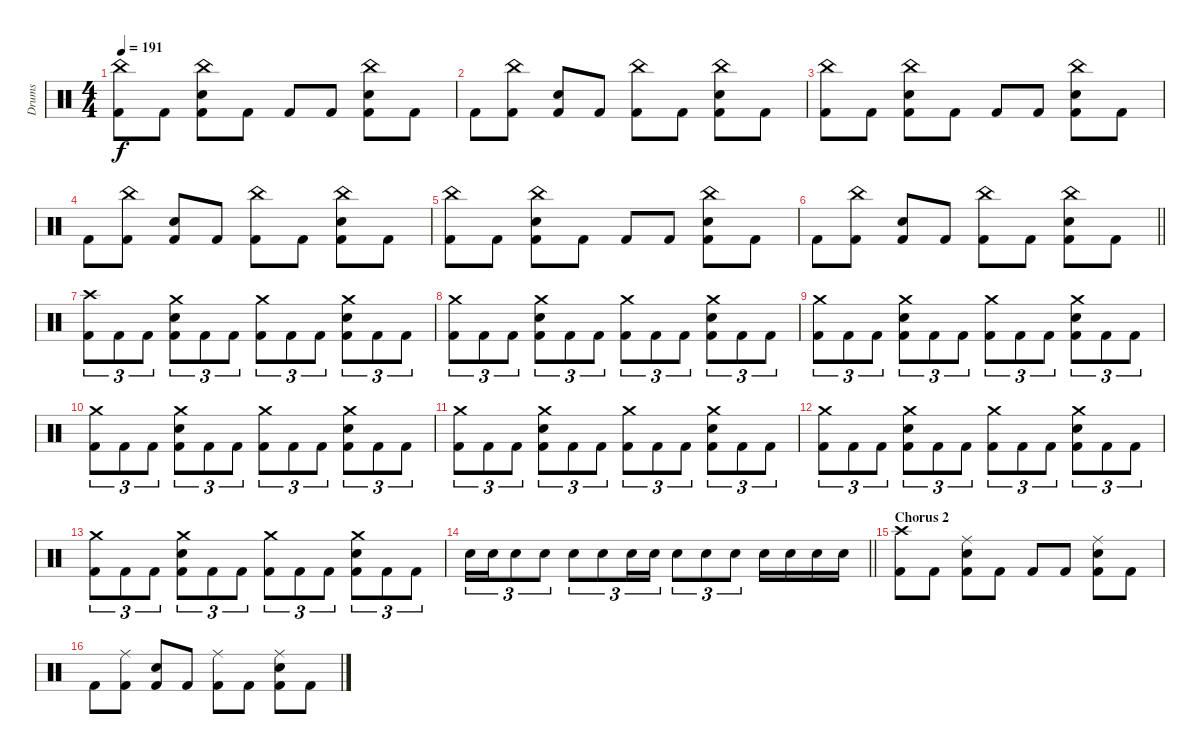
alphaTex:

\track ("Drums" "Drums") {instrument percussion}
\staff {score}
\articulation defaults
\ts (4 4)
\tempo 191
\clef neutral
\ks c
("China (hit)" "Kick (hit) 2").8{dy f} "Kick (hit) 2".8 ("China (hit)" "Snare (hit) 2" "Kick (hit) 2").8 "Kick (hit) 2".8 "Kick (hit) 2".8 "Kick (hit) 2".8 ("China (hit)" "Snare (hit) 2" "Kick (hit) 2").8 "Kick (hit) 2".8 |
"Kick (hit) 2".8 ("China (hit)" "Kick (hit) 2").8 ("Snare (hit) 2" "Kick (hit) 2").8 "Kick (hit) 2".8 ("China (hit)" "Kick (hit) 2").8 "Kick (hit) 2".8 ("China (hit)" "Snare (hit) 2" "Kick (hit) 2").8 "Kick (hit) 2".8 |
("China (hit)" "Kick (hit) 2").8 "Kick (hit) 2".8 ("China (hit)" "Snare (hit) 2" "Kick (hit) 2").8 "Kick (hit) 2".8 "Kick (hit) 2".8 "Kick (hit) 2".8 ("China (hit)" "Snare (hit) 2" "Kick (hit) 2").8 "Kick (hit) 2".8 |
"Kick (hit) 2".8 ("China (hit)" "Kick (hit) 2").8 ("Snare (hit) 2" "Kick (hit) 2").8 "Kick (hit) 2".8 ("China (hit)" "Kick (hit) 2").8 "Kick (hit) 2".8 ("China (hit)" "Snare (hit) 2" "Kick (hit) 2").8 "Kick (hit) 2".8 |
("China (hit)" "Kick (hit) 2").8 "Kick (hit) 2".8 ("China (hit)" "Snare (hit) 2" "Kick (hit) 2").8 "Kick (hit) 2".8 "Kick (hit) 2".8 "Kick (hit) 2".8 ("China (hit)" "Snare (hit) 2" "Kick (hit) 2").8 "Kick (hit) 2".8 |
\barLineRight lightlight "Kick (hit) 2".8
("China (hit)" "Kick (hit) 2").8 ("Snare (hit) 2" "Kick (hit) 2").8 "Kick (hit) 2".8 ("China (hit)" "Kick (hit) 2").8 "Kick (hit) 2".8 ("China (hit)" "Snare (hit) 2" "Kick (hit) 2").8 "Kick (hit) 2".8 |
\section ("" "")
("Crash high (hit)" "Kick (hit) 2").8{tu (3 2)} "Kick (hit) 2".8{tu (3 2)} "Kick (hit) 2".8{tu (3 2)} ("Crash medium (hit)" "Snare (hit) 2" "Kick (hit) 2").8{tu (3 2)} "Kick (hit) 2".8{tu (3 2)} "Kick (hit) 2".8{tu (3 2)} ("Crash medium (hit)" "Kick (hit) 2").8{tu (3 2)} "Kick (hit) 2".8{tu (3 2)} "Kick (hit) 2".8{tu (3 2)} ("Crash medium (hit)" "Snare (hit) 2" "Kick (hit) 2").8{tu (3 2)} "Kick (hit) 2".8{tu (3 2)} "Kick (hit) 2".8{tu (3 2)} |
("Crash medium (hit)" "Kick (hit) 2").8{tu (3 2)} "Kick (hit) 2".8{tu (3 2)} "Kick (hit) 2".8{tu (3 2)} ("Crash medium (hit)" "Snare (hit) 2" "Kick (hit) 2").8{tu (3 2)} "Kick (hit) 2".8{tu (3 2)} "Kick (hit) 2".8{tu (3 2)} ("Crash medium (hit)" "Kick (hit) 2").8{tu (3 2)} "Kick (hit) 2".8{tu (3 2)} "Kick (hit) 2".8{tu (3 2)} ("Crash medium (hit)" "Snare (hit) 2" "Kick (hit) 2").8{tu (3 2)} "Kick (hit) 2".8{tu (3 2)} "Kick (hit) 2".8{tu (3 2)} |
("Crash medium (hit)" "Kick (hit) 2").8{tu (3 2)} "Kick (hit) 2".8{tu (3 2)} "Kick (hit) 2".8{tu (3 2)} ("Crash medium (hit)" "Snare (hit) 2" "Kick (hit) 2").8{tu (3 2)} "Kick (hit) 2".8{tu (3 2)} "Kick (hit) 2".8{tu (3 2)} ("Crash medium (hit)" "Kick (hit) 2").8{tu (3 2)} "Kick (hit) 2".8{tu (3 2)} "Kick (hit) 2".8{tu (3 2)} ("Crash medium (hit)" "Snare (hit) 2" "Kick (hit) 2").8{tu (3 2)} "Kick (hit) 2".8{tu (3 2)} "Kick (hit) 2".8{tu (3 2)} |
("Crash medium (hit)" "Kick (hit) 2").8{tu (3 2)} "Kick (hit) 2".8{tu (3 2)} "Kick (hit) 2".8{tu (3 2)} ("Crash medium (hit)" "Snare (hit) 2" "Kick (hit) 2").8{tu (3 2)} "Kick (hit) 2".8{tu (3 2)} "Kick (hit) 2".8{tu (3 2)} ("Crash medium (hit)" "Kick (hit) 2").8{tu (3 2)} "Kick (hit) 2".8{tu (3 2)} "Kick (hit) 2".8{tu (3 2)} ("Crash medium (hit)" "Snare (hit) 2" "Kick (hit) 2").8{tu (3 2)} "Kick (hit) 2".8{tu (3 2)} "Kick (hit) 2".8{tu (3 2)} |
("Crash medium (hit)" "Kick (hit) 2").8{tu (3 2)} "Kick (hit) 2".8{tu (3 2)} "Kick (hit) 2".8{tu (3 2)} ("Crash medium (hit)" "Snare (hit) 2" "Kick (hit) 2").8{tu (3 2)} "Kick (hit) 2".8{tu (3 2)} "Kick (hit) 2".8{tu (3 2)} ("Crash medium (hit)" "Kick (hit) 2").8{tu (3 2)} "Kick (hit) 2".8{tu (3 2)} "Kick (hit) 2".8{tu (3 2)} ("Crash medium (hit)" "Snare (hit) 2" "Kick (hit) 2").8{tu (3 2)} "Kick (hit) 2".8{tu (3 2)} "Kick (hit) 2".8{tu (3 2)} |
("Crash medium (hit)" "Kick (hit) 2").8{tu (3 2)} "Kick (hit) 2".8{tu (3 2)} "Kick (hit) 2".8{tu (3 2)} ("Crash medium (hit)" "Snare (hit) 2" "Kick (hit) 2").8{tu (3 2)} "Kick (hit) 2".8{tu (3 2)} "Kick (hit) 2".8{tu (3 2)} ("Crash medium (hit)" "Kick (hit) 2").8{tu (3 2)} "Kick (hit) 2".8{tu (3 2)} "Kick (hit) 2".8{tu (3 2)} ("Crash medium (hit)" "Snare (hit) 2" "Kick (hit) 2").8{tu (3 2)} "Kick (hit) 2".8{tu (3 2)} "Kick (hit) 2".8{tu (3 2)} |
("Crash medium (hit)" "Kick (hit) 2").8{tu (3 2)} "Kick (hit) 2".8{tu (3 2)} "Kick (hit) 2".8{tu (3 2)} ("Crash medium (hit)" "Snare (hit) 2" "Kick (hit) 2").8{tu (3 2)} "Kick (hit) 2".8{tu (3 2)} "Kick (hit) 2".8{tu (3 2)} ("Crash medium (hit)" "Kick (hit) 2").8{tu (3 2)} "Kick (hit) 2".8{tu (3 2)} "Kick (hit) 2".8{tu (3 2)} ("Crash medium (hit)" "Snare (hit) 2" "Kick (hit) 2").8{tu (3 2)} "Kick (hit) 2".8{tu (3 2)} "Kick (hit) 2".8{tu (3 2)} |
\barLineRight lightlight "Snare (hit) 2".16{tu (3 2)} "Snare (hit) 2".16{tu (3 2)} "Snare (hit) 2".8{tu (3 2)} "Snare (hit) 2".8{tu (3 2)} "Snare (hit) 2".8{tu (3 2)} "Snare (hit) 2".8{tu (3 2)} "Snare (hit) 2".16{tu (3 2)} "Snare (hit) 2".16{tu (3 2)} "Snare (hit) 2".8{tu (3 2)} "Snare (hit) 2".8{tu (3 2)} "Snare (hit) 2".8{tu (3 2)} "Snare (hit) 2".16 "Snare (hit) 2".16 "Snare (hit) 2".16 "Snare (hit) 2".16
|
\section ("" "Chorus 2")
("Crash high (hit)" "Kick (hit) 2").8 "Kick (hit) 2".8 ("Ride (middle)" "Snare (hit) 2" "Kick (hit) 2").8 "Kick (hit) 2".8 "Kick (hit) 2".8 "Kick (hit) 2".8 ("Ride (middle)" "Snare (hit) 2" "Kick (hit) 2").8 "Kick (hit) 2".8 |
"Kick (hit) 2".8 ("Ride (middle)" "Kick (hit) 2").8 ("Snare (hit) 2" "Kick (hit) 2").8 "Kick (hit) 2".8 ("Ride (middle)" "Kick (hit) 2").8 "Kick (hit) 2".8 ("Ride (middle)" "Snare (hit) 2" "Kick (hit) 2").8 "Kick (hit) 2".8
